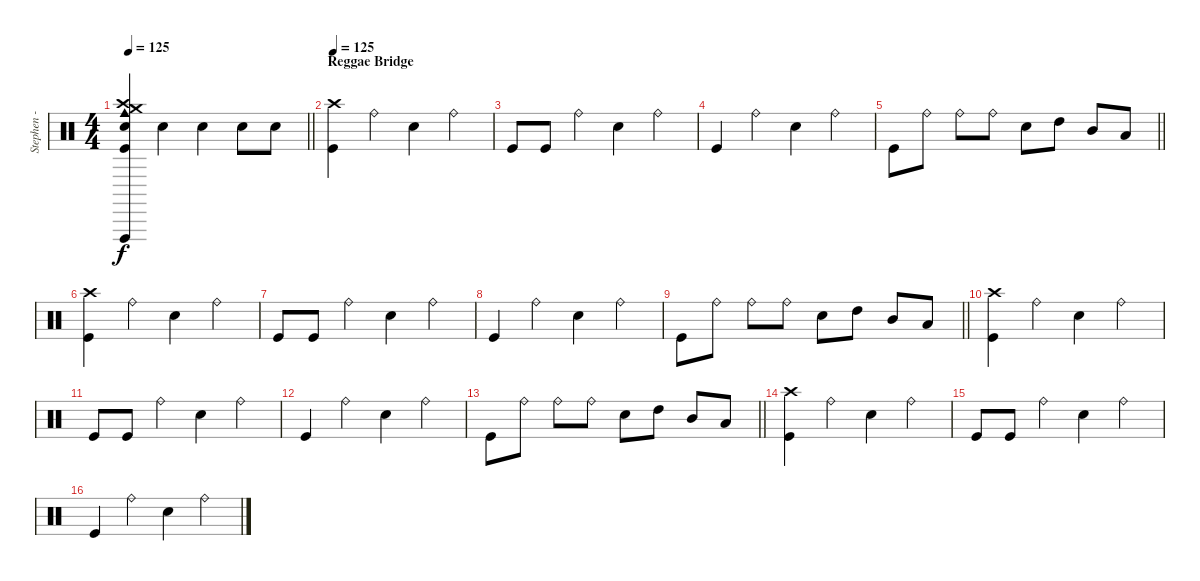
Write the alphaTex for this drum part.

\track ("Stephen - Drums" "Stephen - ") {instrument percussion}
\staff {score}
\articulation defaults
\ts (4 4)
\tempo 130
\tempo 125
\clef neutral
\barLineRight lightlight
\ks c
("Vibraslap (hit)" "Crash high (hit)" "Cowbell medium (hit)" "Crash medium (hit)" "Snare (hit) 2" "Kick (hit)").4{dy f} "Snare (hit) 2".4 "Snare (hit) 2".4 "Snare (hit) 2".8 "Snare (hit) 2".8 |
\section ("" "Reggae Bridge")
\tempo 125
("Crash high (hit)" "Kick (hit)").4 "Ride (bell)".4 "Snare (hit) 2".4 "Ride (bell)".4 |
"Kick (hit)".8 "Kick (hit)".8 "Ride (bell)".4 "Snare (hit) 2".4 "Ride (bell)".4 |
"Kick (hit)".4 "Ride (bell)".4 "Snare (hit) 2".4 "Ride (bell)".4 |
\barLineRight lightlight "Kick (hit)".8 "Ride (bell)".8 "Ride (bell)".8 "Ride (bell)".8 "Snare (hit) 2".8 "High Tom (hit)".8 "Mid Tom (hit)".8 "Low Tom (hit)".8
|
("Crash high (hit)" "Kick (hit)").4 "Ride (bell)".4 "Snare (hit) 2".4 "Ride (bell)".4 |
"Kick (hit)".8 "Kick (hit)".8 "Ride (bell)".4 "Snare (hit) 2".4 "Ride (bell)".4 |
"Kick (hit)".4 "Ride (bell)".4 "Snare (hit) 2".4 "Ride (bell)".4 |
\barLineRight lightlight "Kick (hit)".8 "Ride (bell)".8 "Ride (bell)".8 "Ride (bell)".8 "Snare (hit) 2".8 "High Tom (hit)".8 "Mid Tom (hit)".8 "Low Tom (hit)".8
|
("Crash high (hit)" "Kick (hit)").4 "Ride (bell)".4 "Snare (hit) 2".4 "Ride (bell)".4 |
"Kick (hit)".8 "Kick (hit)".8 "Ride (bell)".4 "Snare (hit) 2".4 "Ride (bell)".4 |
"Kick (hit)".4 "Ride (bell)".4 "Snare (hit) 2".4 "Ride (bell)".4 |
\barLineRight lightlight "Kick (hit)".8 "Ride (bell)".8 "Ride (bell)".8 "Ride (bell)".8 "Snare (hit) 2".8 "High Tom (hit)".8 "Mid Tom (hit)".8 "Low Tom (hit)".8
|
("Crash high (hit)" "Kick (hit)").4 "Ride (bell)".4 "Snare (hit) 2".4 "Ride (bell)".4 |
"Kick (hit)".8 "Kick (hit)".8 "Ride (bell)".4 "Snare (hit) 2".4 "Ride (bell)".4 |
"Kick (hit)".4 "Ride (bell)".4 "Snare (hit) 2".4 "Ride (bell)".4
